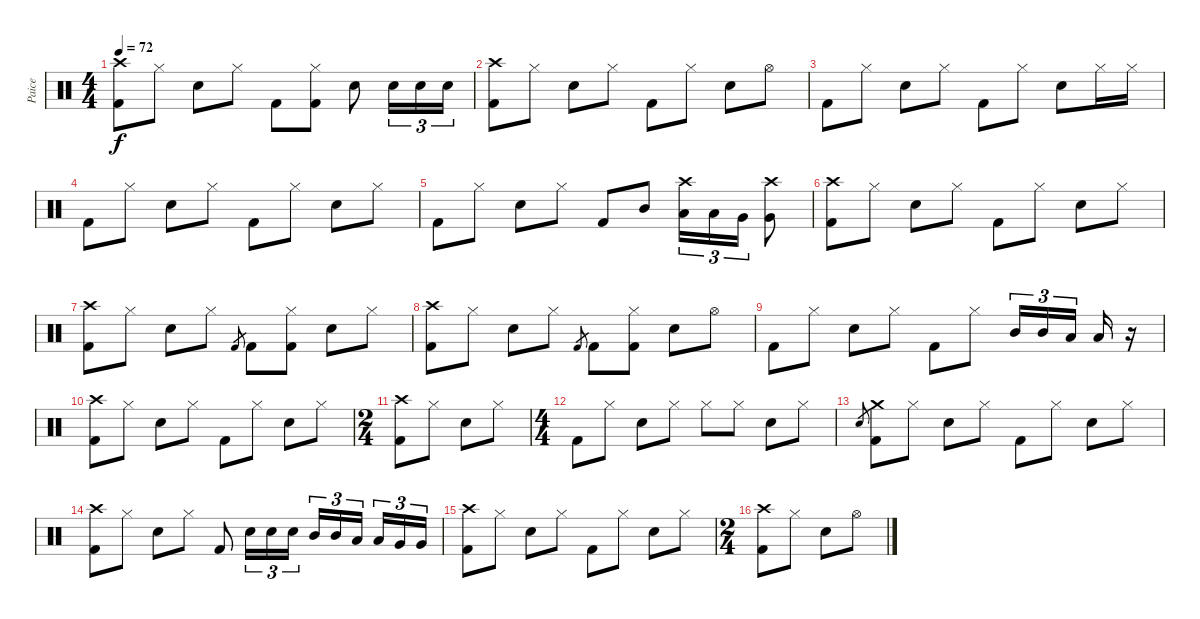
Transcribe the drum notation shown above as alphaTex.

\track ("Paice" "Paice") {instrument percussion}
\staff {score}
\articulation defaults
\ts (4 4)
\tempo 72
\clef neutral
\ks c
("Crash high (hit)"{t} "Kick (hit) 2").8{dy f} "Hi-Hat (closed)".8 "Electric Snare (hit)".8 "Hi-Hat (closed)".8 "Kick (hit) 2".8 ("Hi-Hat (closed)" "Kick (hit) 2").8 "Electric Snare (hit)".8 "Electric Snare (hit)".16{tu (3 2)} "Electric Snare (hit)".16{tu (3 2)} "Electric Snare (hit)".16{tu (3 2)} |
("Crash high (hit)" "Kick (hit) 2").8 "Hi-Hat (closed)".8 "Electric Snare (hit)".8 "Hi-Hat (closed)".8 "Kick (hit) 2".8 "Hi-Hat (closed)".8 "Electric Snare (hit)".8 "Hi-Hat (open)".8 |
"Kick (hit) 2".8 "Hi-Hat (closed)".8 "Electric Snare (hit)".8 "Hi-Hat (closed)".8 "Kick (hit) 2".8 "Hi-Hat (closed)".8 "Electric Snare (hit)".8 "Hi-Hat (closed)".16 "Hi-Hat (closed)".16 |
"Kick (hit) 2".8 "Hi-Hat (closed)".8 "Electric Snare (hit)".8 "Hi-Hat (closed)".8 "Kick (hit) 2".8 "Hi-Hat (closed)".8 "Electric Snare (hit)".8 "Hi-Hat (closed)".8 |
"Kick (hit) 2".8 "Hi-Hat (closed)".8 "Electric Snare (hit)".8 "Hi-Hat (closed)".8 "Kick (hit) 2".8 "Mid Tom (hit)".8 ("Crash high (hit)" "Low Tom (hit)").16{tu (3 2)} "Low Tom (hit)".16{tu (3 2)} "Very Low Tom (hit)".16{tu (3 2)} ("Crash high (hit)" "Very Low Tom (hit)").8 |
("Crash high (hit)" "Kick (hit) 2").8 "Hi-Hat (closed)".8 "Electric Snare (hit)".8 "Hi-Hat (closed)".8 "Kick (hit) 2".8 "Hi-Hat (closed)".8 "Electric Snare (hit)".8 "Hi-Hat (closed)".8 |
("Crash high (hit)" "Kick (hit) 2").8 "Hi-Hat (closed)".8 "Electric Snare (hit)".8 "Hi-Hat (closed)".8 "Kick (hit) 2".8{gr} "Kick (hit) 2".8 ("Hi-Hat (closed)" "Kick (hit) 2").8 "Electric Snare (hit)".8 "Hi-Hat (closed)".8 |
("Crash high (hit)" "Kick (hit) 2").8 "Hi-Hat (closed)".8 "Electric Snare (hit)".8 "Hi-Hat (closed)".8 "Kick (hit) 2".8{gr} "Kick (hit) 2".8 ("Hi-Hat (closed)" "Kick (hit) 2").8 "Electric Snare (hit)".8 "Hi-Hat (open)".8 |
"Kick (hit) 2".8 "Hi-Hat (closed)".8 "Electric Snare (hit)".8 "Hi-Hat (closed)".8 "Kick (hit) 2".8 "Hi-Hat (closed)".8 "Mid Tom (hit)".16{tu (3 2)} "Mid Tom (hit)".16{tu (3 2)} "Low Tom (hit)".16{tu (3 2)} "Low Tom (hit)".16 r.16 |
("Crash high (hit)" "Kick (hit) 2").8 "Hi-Hat (closed)".8 "Electric Snare (hit)".8 "Hi-Hat (closed)".8 "Kick (hit) 2".8 "Hi-Hat (closed)".8 "Electric Snare (hit)".8 "Hi-Hat (closed)".8 |
\ts (2 4)
("Crash high (hit)" "Kick (hit) 2").8 "Hi-Hat (closed)".8 "Electric Snare (hit)".8 "Hi-Hat (closed)".8 |
\ts (4 4)
"Kick (hit) 2".8 "Hi-Hat (closed)".8 "Electric Snare (hit)".8 "Hi-Hat (closed)".8 "Hi-Hat (closed)".8 "Hi-Hat (closed)".8 "Electric Snare (hit)".8 "Hi-Hat (closed)".8 |
"Electric Snare (hit)".8{gr} ("Crash medium (hit)" "Kick (hit) 2").8 "Hi-Hat (closed)".8 "Electric Snare (hit)".8 "Hi-Hat (closed)".8 "Kick (hit) 2".8 "Hi-Hat (closed)".8 "Electric Snare (hit)".8 "Hi-Hat (closed)".8 |
("Crash high (hit)" "Kick (hit) 2").8 "Hi-Hat (closed)".8 "Electric Snare (hit)".8 "Hi-Hat (closed)".8 "Kick (hit) 2".8 "Electric Snare (hit)".16{tu (3 2)} "Electric Snare (hit)".16{tu (3 2)} "Electric Snare (hit)".16{tu (3 2)} "Mid Tom (hit)".16{tu (3 2)} "Mid Tom (hit)".16{tu (3 2)} "Low Tom (hit)".16{tu (3 2)} "Low Tom (hit)".16{tu (3 2)} "Very Low Tom (hit)".16{tu (3 2)} "Very Low Tom (hit)".16{tu (3 2)} |
("Crash high (hit)" "Kick (hit) 2").8 "Hi-Hat (closed)".8 "Electric Snare (hit)".8 "Hi-Hat (closed)".8 "Kick (hit) 2".8 "Hi-Hat (closed)".8 "Electric Snare (hit)".8 "Hi-Hat (closed)".8 |
\ts (2 4)
("Crash high (hit)" "Kick (hit) 2").8 "Hi-Hat (closed)".8 "Electric Snare (hit)".8 "Hi-Hat (open)".8
